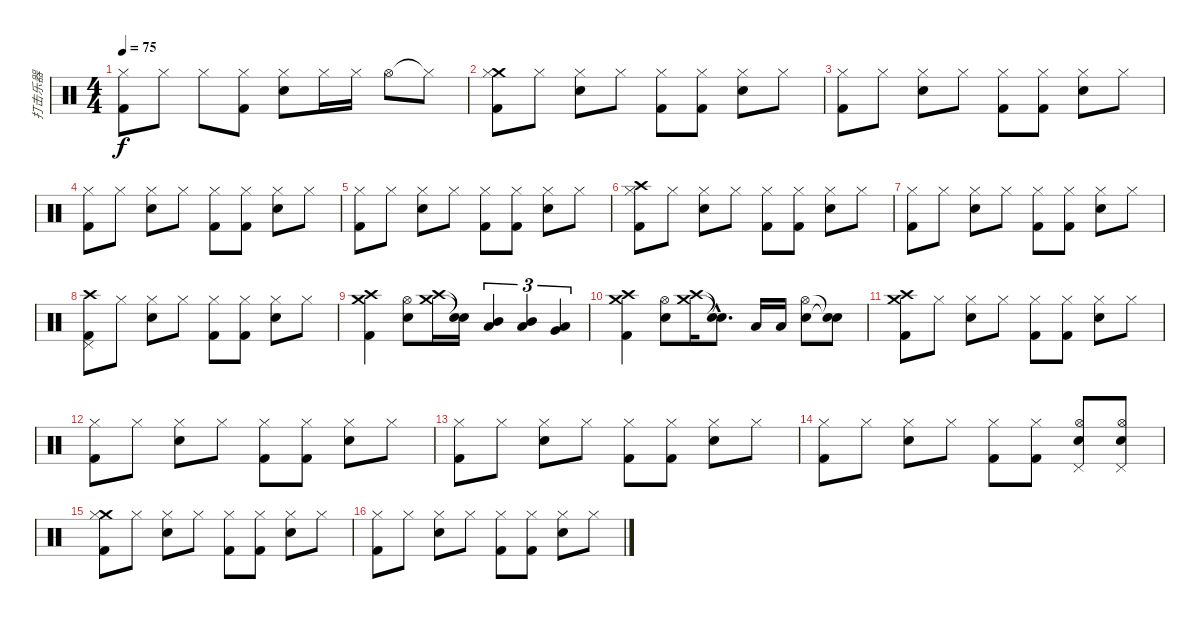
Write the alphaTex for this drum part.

\track ("打击乐器" "打击乐器") {instrument percussion}
\staff {score}
\articulation defaults
\ts (4 4)
\tempo 75
\clef neutral
\ks c
("Hi-Hat (closed)" "Kick (hit) 2").8{dy f} "Hi-Hat (closed)".8 "Hi-Hat (closed)".8 ("Hi-Hat (closed)" "Kick (hit) 2").8 ("Hi-Hat (closed)" "Electric Snare (hit)").8 "Hi-Hat (closed)".16 "Hi-Hat (closed)".16 "Hi-Hat (open)".8 "Hi-Hat (closed)"{t}.8 |
("Crash medium (hit)" "Hi-Hat (closed)" "Kick (hit) 2").8 "Hi-Hat (closed)".8 ("Hi-Hat (closed)" "Electric Snare (hit)").8 "Hi-Hat (closed)".8 ("Hi-Hat (closed)" "Kick (hit) 2").8 ("Hi-Hat (closed)" "Kick (hit) 2").8 ("Hi-Hat (closed)" "Electric Snare (hit)").8 "Hi-Hat (closed)".8 |
("Hi-Hat (closed)" "Kick (hit) 2").8 "Hi-Hat (closed)".8 ("Hi-Hat (closed)" "Electric Snare (hit)").8 "Hi-Hat (closed)".8 ("Hi-Hat (closed)" "Kick (hit) 2").8 ("Hi-Hat (closed)" "Kick (hit) 2").8 ("Hi-Hat (closed)" "Electric Snare (hit)").8 "Hi-Hat (closed)".8 |
("Hi-Hat (closed)" "Kick (hit) 2").8 "Hi-Hat (closed)".8 ("Hi-Hat (closed)" "Electric Snare (hit)").8 "Hi-Hat (closed)".8 ("Hi-Hat (closed)" "Kick (hit) 2").8 ("Hi-Hat (closed)" "Kick (hit) 2").8 ("Hi-Hat (closed)" "Electric Snare (hit)").8 "Hi-Hat (closed)".8 |
("Hi-Hat (closed)" "Kick (hit) 2").8 "Hi-Hat (closed)".8 ("Hi-Hat (closed)" "Electric Snare (hit)").8 "Hi-Hat (closed)".8 ("Hi-Hat (closed)" "Kick (hit) 2").8 ("Hi-Hat (closed)" "Kick (hit) 2").8 ("Hi-Hat (closed)" "Electric Snare (hit)").8 "Hi-Hat (closed)".8 |
("Crash high (hit)" "Hi-Hat (closed)" "Kick (hit) 2").8 "Hi-Hat (closed)".8 ("Hi-Hat (closed)" "Electric Snare (hit)").8 "Hi-Hat (closed)".8 ("Hi-Hat (closed)" "Kick (hit) 2").8 ("Hi-Hat (closed)" "Kick (hit) 2").8 ("Hi-Hat (closed)" "Electric Snare (hit)").8 "Hi-Hat (closed)".8 |
("Hi-Hat (closed)" "Kick (hit) 2").8 "Hi-Hat (closed)".8 ("Hi-Hat (closed)" "Electric Snare (hit)").8 "Hi-Hat (closed)".8 ("Hi-Hat (closed)" "Kick (hit) 2").8 ("Hi-Hat (closed)" "Kick (hit) 2").8 ("Hi-Hat (closed)" "Electric Snare (hit)").8 "Hi-Hat (closed)".8 |
("Crash high (hit)" "Pedal Hi-Hat (hit)" "Kick (hit) 2").8 "Hi-Hat (closed)".8 ("Hi-Hat (closed)" "Electric Snare (hit)").8 "Hi-Hat (closed)".8 ("Hi-Hat (closed)" "Kick (hit) 2").8 ("Hi-Hat (closed)" "Kick (hit) 2").8 ("Hi-Hat (closed)" "Electric Snare (hit)").8 "Hi-Hat (closed)".8 |
("Crash medium (hit)" "Crash high (hit)" "Kick (hit) 2").4 ("Hi-Hat (open)" "Electric Snare (hit)").8 ("Crash medium (hit)" "Crash high (hit)").16 ("Snare (hit)"{t} "Snare (hit)"{t}).16 ("Low Tom (hit)" "Mid Tom (hit)").4{tu (3 2)} ("Low Tom (hit)" "Mid Tom (hit)").4{tu (3 2)} ("Very Low Tom (hit)" "Low Tom (hit)").4{tu (3 2)} |
("Crash medium (hit)" "Crash high (hit)" "Kick (hit) 2").4 ("Hi-Hat (open)" "Electric Snare (hit)").8 ("Crash medium (hit)" "Crash high (hit)").16 ("Snare (hit)"{hac t} "Snare (hit)"{hac t}).8{d} "Low Tom (hit)".16 "Low Tom (hit)".16 ("Hi-Hat (open)" "Electric Snare (hit)").8 ("Snare (hit)"{t} "Electric Snare (hit)"{t}).8 |
("Crash medium (hit)" "Crash high (hit)" "Kick (hit) 2").8 "Hi-Hat (closed)".8 ("Hi-Hat (closed)" "Electric Snare (hit)").8 "Hi-Hat (closed)".8 ("Hi-Hat (closed)" "Kick (hit) 2").8 ("Hi-Hat (closed)" "Kick (hit) 2").8 ("Hi-Hat (closed)" "Electric Snare (hit)").8 "Hi-Hat (closed)".8 |
("Hi-Hat (closed)" "Kick (hit) 2").8 "Hi-Hat (closed)".8 ("Hi-Hat (closed)" "Electric Snare (hit)").8 "Hi-Hat (closed)".8 ("Hi-Hat (closed)" "Kick (hit) 2").8 ("Hi-Hat (closed)" "Kick (hit) 2").8 ("Hi-Hat (closed)" "Electric Snare (hit)").8 "Hi-Hat (closed)".8 |
("Hi-Hat (closed)" "Kick (hit) 2").8 "Hi-Hat (closed)".8 ("Hi-Hat (closed)" "Electric Snare (hit)").8 "Hi-Hat (closed)".8 ("Hi-Hat (closed)" "Kick (hit) 2").8 ("Hi-Hat (closed)" "Kick (hit) 2").8 ("Hi-Hat (closed)" "Electric Snare (hit)").8 "Hi-Hat (closed)".8 |
("Hi-Hat (closed)" "Kick (hit) 2").8 "Hi-Hat (closed)".8 ("Hi-Hat (closed)" "Electric Snare (hit)").8 "Hi-Hat (closed)".8 ("Hi-Hat (closed)" "Kick (hit) 2").8 ("Hi-Hat (closed)" "Kick (hit) 2").8 ("Pedal Hi-Hat (hit)" "Hi-Hat (open)" "Electric Snare (hit)").8 ("Pedal Hi-Hat (hit)" "Hi-Hat (open)" "Electric Snare (hit)").8 |
("Crash medium (hit)" "Hi-Hat (closed)" "Kick (hit) 2").8 "Hi-Hat (closed)".8 ("Hi-Hat (closed)" "Electric Snare (hit)").8 "Hi-Hat (closed)".8 ("Hi-Hat (closed)" "Kick (hit) 2").8 ("Hi-Hat (closed)" "Kick (hit) 2").8 ("Hi-Hat (closed)" "Electric Snare (hit)").8 "Hi-Hat (closed)".8 |
("Hi-Hat (closed)" "Kick (hit) 2").8 "Hi-Hat (closed)".8 ("Hi-Hat (closed)" "Electric Snare (hit)").8 "Hi-Hat (closed)".8 ("Hi-Hat (closed)" "Kick (hit) 2").8 ("Hi-Hat (closed)" "Kick (hit) 2").8 ("Hi-Hat (closed)" "Electric Snare (hit)").8 "Hi-Hat (closed)".8
